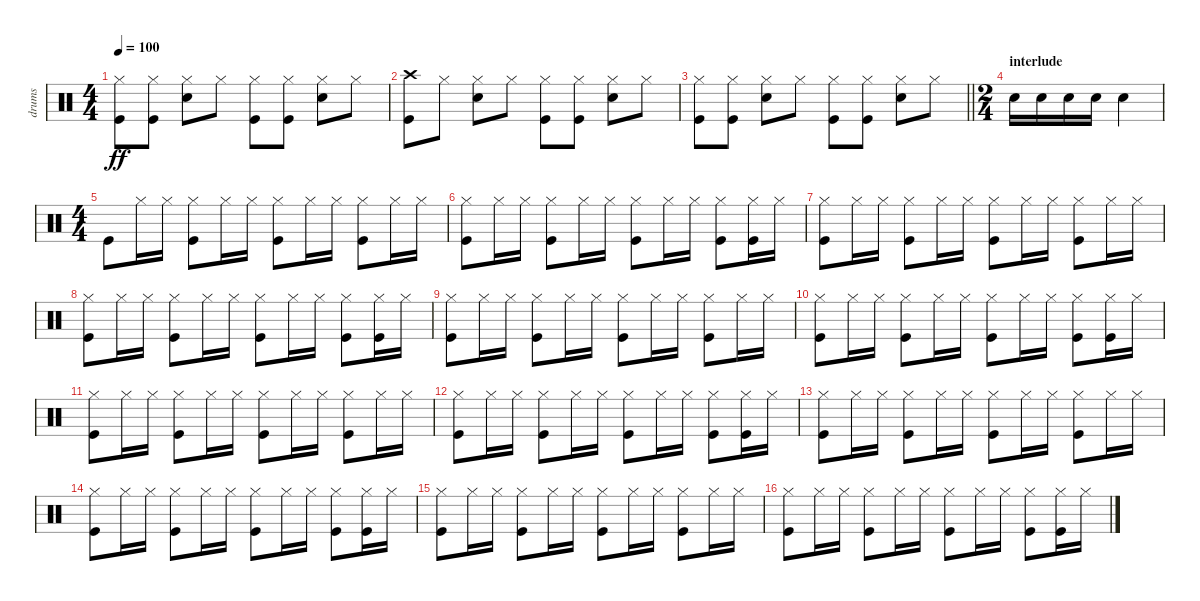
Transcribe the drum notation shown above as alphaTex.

\track ("drums" "drums") {instrument percussion}
\staff {score}
\articulation defaults
\ts (4 4)
\tempo 100
\clef neutral
\ks c
("Hi-Hat (closed)" "Kick (hit)").8{dy ff} ("Hi-Hat (closed)" "Kick (hit)").8 ("Hi-Hat (closed)" "Electric Snare (hit)").8 "Hi-Hat (closed)".8 ("Hi-Hat (closed)" "Kick (hit)").8 ("Hi-Hat (closed)" "Kick (hit)").8 ("Hi-Hat (closed)" "Electric Snare (hit)").8 "Hi-Hat (closed)".8 |
("Crash high (hit)" "Kick (hit)").8 "Hi-Hat (closed)".8 ("Hi-Hat (closed)" "Electric Snare (hit)").8 "Hi-Hat (closed)".8 ("Hi-Hat (closed)" "Kick (hit)").8 ("Hi-Hat (closed)" "Kick (hit)").8 ("Hi-Hat (closed)" "Electric Snare (hit)").8 "Hi-Hat (closed)".8 |
\barLineRight lightlight
("Hi-Hat (closed)" "Kick (hit)").8 ("Hi-Hat (closed)" "Kick (hit)").8 ("Hi-Hat (closed)" "Electric Snare (hit)").8 "Hi-Hat (closed)".8 ("Hi-Hat (closed)" "Kick (hit)").8 ("Hi-Hat (closed)" "Kick (hit)").8 ("Hi-Hat (closed)" "Electric Snare (hit)").8 "Hi-Hat (closed)".8 |
\ts (2 4)
\section ("" "interlude")
"Electric Snare (hit)".16 "Electric Snare (hit)".16 "Electric Snare (hit)".16 "Electric Snare (hit)".16 "Electric Snare (hit)".4 |
\ts (4 4)
"Kick (hit)".8 "Hi-Hat (closed)".16 "Hi-Hat (closed)".16 ("Hi-Hat (closed)" "Kick (hit)").8 "Hi-Hat (closed)".16 "Hi-Hat (closed)".16 ("Hi-Hat (closed)" "Kick (hit)").8 "Hi-Hat (closed)".16 "Hi-Hat (closed)".16 ("Hi-Hat (closed)" "Kick (hit)").8 "Hi-Hat (closed)".16 "Hi-Hat (closed)".16 |
("Hi-Hat (closed)" "Kick (hit)").8 "Hi-Hat (closed)".16 "Hi-Hat (closed)".16 ("Hi-Hat (closed)" "Kick (hit)").8 "Hi-Hat (closed)".16 "Hi-Hat (closed)".16 ("Hi-Hat (closed)" "Kick (hit)").8 "Hi-Hat (closed)".16 "Hi-Hat (closed)".16 ("Hi-Hat (closed)" "Kick (hit)").8 ("Hi-Hat (closed)" "Kick (hit)").16 "Hi-Hat (closed)".16 |
("Hi-Hat (closed)" "Kick (hit)").8 "Hi-Hat (closed)".16 "Hi-Hat (closed)".16 ("Hi-Hat (closed)" "Kick (hit)").8 "Hi-Hat (closed)".16 "Hi-Hat (closed)".16 ("Hi-Hat (closed)" "Kick (hit)").8 "Hi-Hat (closed)".16 "Hi-Hat (closed)".16 ("Hi-Hat (closed)" "Kick (hit)").8 "Hi-Hat (closed)".16 "Hi-Hat (closed)".16 |
("Hi-Hat (closed)" "Kick (hit)").8 "Hi-Hat (closed)".16 "Hi-Hat (closed)".16 ("Hi-Hat (closed)" "Kick (hit)").8 "Hi-Hat (closed)".16 "Hi-Hat (closed)".16 ("Hi-Hat (closed)" "Kick (hit)").8 "Hi-Hat (closed)".16 "Hi-Hat (closed)".16 ("Hi-Hat (closed)" "Kick (hit)").8 ("Hi-Hat (closed)" "Kick (hit)").16 "Hi-Hat (closed)".16 |
("Hi-Hat (closed)" "Kick (hit)").8 "Hi-Hat (closed)".16 "Hi-Hat (closed)".16 ("Hi-Hat (closed)" "Kick (hit)").8 "Hi-Hat (closed)".16 "Hi-Hat (closed)".16 ("Hi-Hat (closed)" "Kick (hit)").8 "Hi-Hat (closed)".16 "Hi-Hat (closed)".16 ("Hi-Hat (closed)" "Kick (hit)").8 "Hi-Hat (closed)".16 "Hi-Hat (closed)".16 |
("Hi-Hat (closed)" "Kick (hit)").8 "Hi-Hat (closed)".16 "Hi-Hat (closed)".16 ("Hi-Hat (closed)" "Kick (hit)").8 "Hi-Hat (closed)".16 "Hi-Hat (closed)".16 ("Hi-Hat (closed)" "Kick (hit)").8 "Hi-Hat (closed)".16 "Hi-Hat (closed)".16 ("Hi-Hat (closed)" "Kick (hit)").8 ("Hi-Hat (closed)" "Kick (hit)").16 "Hi-Hat (closed)".16 |
("Hi-Hat (closed)" "Kick (hit)").8 "Hi-Hat (closed)".16 "Hi-Hat (closed)".16 ("Hi-Hat (closed)" "Kick (hit)").8 "Hi-Hat (closed)".16 "Hi-Hat (closed)".16 ("Hi-Hat (closed)" "Kick (hit)").8 "Hi-Hat (closed)".16 "Hi-Hat (closed)".16 ("Hi-Hat (closed)" "Kick (hit)").8 "Hi-Hat (closed)".16 "Hi-Hat (closed)".16 |
("Hi-Hat (closed)" "Kick (hit)").8 "Hi-Hat (closed)".16 "Hi-Hat (closed)".16 ("Hi-Hat (closed)" "Kick (hit)").8 "Hi-Hat (closed)".16 "Hi-Hat (closed)".16 ("Hi-Hat (closed)" "Kick (hit)").8 "Hi-Hat (closed)".16 "Hi-Hat (closed)".16 ("Hi-Hat (closed)" "Kick (hit)").8 ("Hi-Hat (closed)" "Kick (hit)").16 "Hi-Hat (closed)".16 |
("Hi-Hat (closed)" "Kick (hit)").8 "Hi-Hat (closed)".16 "Hi-Hat (closed)".16 ("Hi-Hat (closed)" "Kick (hit)").8 "Hi-Hat (closed)".16 "Hi-Hat (closed)".16 ("Hi-Hat (closed)" "Kick (hit)").8 "Hi-Hat (closed)".16 "Hi-Hat (closed)".16 ("Hi-Hat (closed)" "Kick (hit)").8 "Hi-Hat (closed)".16 "Hi-Hat (closed)".16 |
("Hi-Hat (closed)" "Kick (hit)").8 "Hi-Hat (closed)".16 "Hi-Hat (closed)".16 ("Hi-Hat (closed)" "Kick (hit)").8 "Hi-Hat (closed)".16 "Hi-Hat (closed)".16 ("Hi-Hat (closed)" "Kick (hit)").8 "Hi-Hat (closed)".16 "Hi-Hat (closed)".16 ("Hi-Hat (closed)" "Kick (hit)").8 ("Hi-Hat (closed)" "Kick (hit)").16 "Hi-Hat (closed)".16 |
("Hi-Hat (closed)" "Kick (hit)").8 "Hi-Hat (closed)".16 "Hi-Hat (closed)".16 ("Hi-Hat (closed)" "Kick (hit)").8 "Hi-Hat (closed)".16 "Hi-Hat (closed)".16 ("Hi-Hat (closed)" "Kick (hit)").8 "Hi-Hat (closed)".16 "Hi-Hat (closed)".16 ("Hi-Hat (closed)" "Kick (hit)").8 "Hi-Hat (closed)".16 "Hi-Hat (closed)".16 |
("Hi-Hat (closed)" "Kick (hit)").8 "Hi-Hat (closed)".16 "Hi-Hat (closed)".16 ("Hi-Hat (closed)" "Kick (hit)").8 "Hi-Hat (closed)".16 "Hi-Hat (closed)".16 ("Hi-Hat (closed)" "Kick (hit)").8 "Hi-Hat (closed)".16 "Hi-Hat (closed)".16 ("Hi-Hat (closed)" "Kick (hit)").8 ("Hi-Hat (closed)" "Kick (hit)").16 "Hi-Hat (closed)".16
